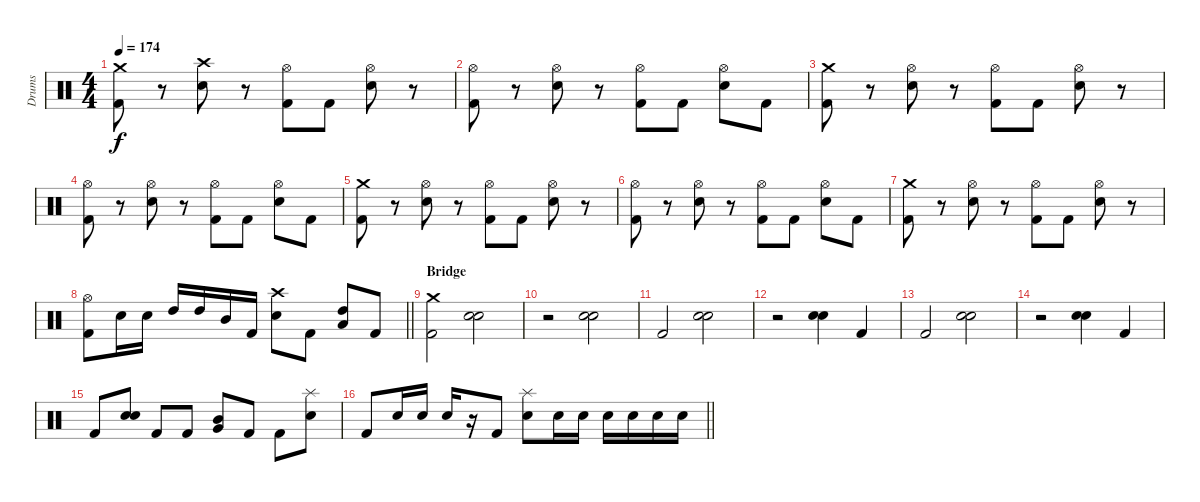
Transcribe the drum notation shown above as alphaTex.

\track ("Drums" "Drums") {instrument percussion}
\staff {score}
\articulation defaults
\ts (4 4)
\tempo 174
\clef neutral
\ks c
("Crash medium (hit)" "Kick (hit) 2").8{dy f} r.8 ("Crash high (hit)" "Electric Snare (hit)").8 r.8 ("Hi-Hat (open)" "Kick (hit) 2").8 "Kick (hit) 2".8 ("Hi-Hat (open)" "Electric Snare (hit)").8 r.8 |
("Hi-Hat (open)" "Kick (hit) 2").8 r.8 ("Hi-Hat (open)" "Electric Snare (hit)").8 r.8 ("Hi-Hat (open)" "Kick (hit) 2").8 "Kick (hit) 2".8 ("Hi-Hat (open)" "Electric Snare (hit)").8 "Kick (hit) 2".8 |
("Crash medium (hit)" "Kick (hit) 2").8 r.8 ("Hi-Hat (open)" "Electric Snare (hit)").8 r.8 ("Hi-Hat (open)" "Kick (hit) 2").8 "Kick (hit) 2".8 ("Hi-Hat (open)" "Electric Snare (hit)").8 r.8 |
("Hi-Hat (open)" "Kick (hit) 2").8 r.8 ("Hi-Hat (open)" "Electric Snare (hit)").8 r.8 ("Hi-Hat (open)" "Kick (hit) 2").8 "Kick (hit) 2".8 ("Hi-Hat (open)" "Electric Snare (hit)").8 "Kick (hit) 2".8 |
("Crash medium (hit)" "Kick (hit) 2").8 r.8 ("Hi-Hat (open)" "Electric Snare (hit)").8 r.8 ("Hi-Hat (open)" "Kick (hit) 2").8 "Kick (hit) 2".8 ("Hi-Hat (open)" "Electric Snare (hit)").8 r.8 |
("Hi-Hat (open)" "Kick (hit) 2").8 r.8 ("Hi-Hat (open)" "Electric Snare (hit)").8 r.8 ("Hi-Hat (open)" "Kick (hit) 2").8 "Kick (hit) 2".8 ("Hi-Hat (open)" "Electric Snare (hit)").8 "Kick (hit) 2".8 |
("Crash medium (hit)" "Kick (hit) 2").8 r.8 ("Hi-Hat (open)" "Electric Snare (hit)").8 r.8 ("Hi-Hat (open)" "Kick (hit) 2").8 "Kick (hit) 2".8 ("Hi-Hat (open)" "Electric Snare (hit)").8 r.8 |
\barLineRight lightlight
("Hi-Hat (open)" "Kick (hit) 2").8 "Electric Snare (hit)".16 "Electric Snare (hit)".16 "High Tom (hit)".16 "High Tom (hit)".16 "Mid Tom (hit)".16 "Kick (hit) 2".16 ("Crash high (hit)" "Electric Snare (hit)").8 "Kick (hit) 2".8 ("Low Tom (hit)" "High Tom (hit)").8 "Kick (hit) 2".8 |
\section ("" "Bridge")
("Crash medium (hit)" "Kick (hit) 2").2 ("Electric Snare (hit)" "Electric Snare (hit)").2{bd 60} |
r.2 ("Electric Snare (hit)" "Electric Snare (hit)").2{bd 60} |
"Kick (hit) 2".2 ("Electric Snare (hit)" "Electric Snare (hit)").2{bd 60} |
r.2 ("Electric Snare (hit)" "Electric Snare (hit)").4{bd 60} "Kick (hit) 2".4 |
"Kick (hit) 2".2 ("Electric Snare (hit)" "Electric Snare (hit)").2{bd 60} |
r.2 ("Electric Snare (hit)" "Electric Snare (hit)").4{bd 60} "Kick (hit) 2".4 |
"Kick (hit) 2".8 ("Electric Snare (hit)" "Electric Snare (hit)").8{bd 60} "Kick (hit) 2".8 "Kick (hit) 2".8 ("Very Low Tom (hit)" "Mid Tom (hit)").8 "Kick (hit) 2".8 "Kick (hit) 2".8 ("Splash (hit)" "Electric Snare (hit)").8 |
\barLineRight lightlight "Kick (hit) 2".8 "Electric Snare (hit)".16 "Electric Snare (hit)".16 "Electric Snare (hit)".16
r.16 "Kick (hit) 2".8 ("Splash (hit)" "Electric Snare (hit)").8 "Electric Snare (hit)".16 "Electric Snare (hit)".16 "Electric Snare (hit)".16 "Electric Snare (hit)".16 "Electric Snare (hit)".16 "Electric Snare (hit)".16
